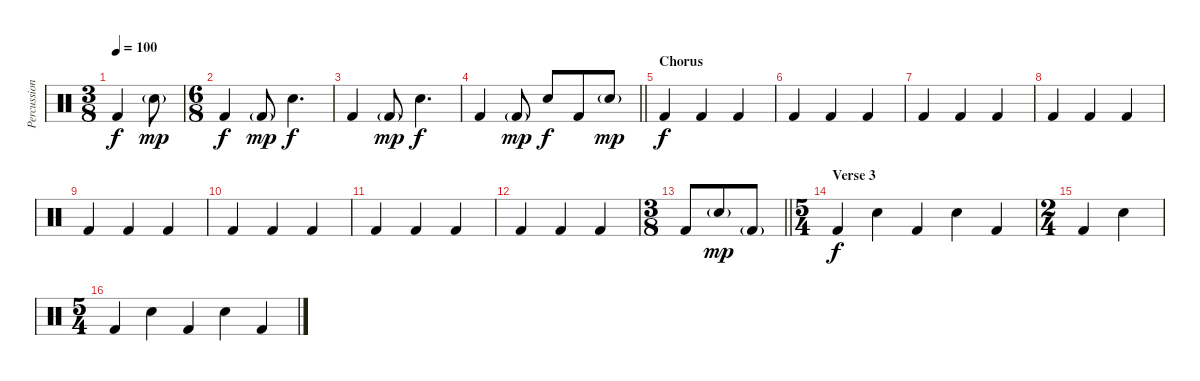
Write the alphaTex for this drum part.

\track ("Percussion" "Percussion") {instrument percussion}
\staff {score}
\articulation defaults
\ts (3 8)
\tempo 100
\clef neutral
\ks c "Kick (hit) 2".4{dy f} "Snare (hit) 2"{g}.8{dy mp}
|
\ts (6 8)
"Kick (hit) 2".4{dy f} "Kick (hit) 2"{g}.8{dy mp} "Snare (hit) 2".4{d dy f} |
"Kick (hit) 2".4 "Kick (hit) 2"{g}.8{dy mp} "Snare (hit) 2".4{d dy f} |
\barLineRight lightlight "Kick (hit) 2".4 "Kick (hit) 2"{g}.8{dy mp} "Snare (hit) 2".8{dy f} "Kick (hit) 2".8 "Snare (hit) 2"{g}.8{dy mp}
|
\section ("" "Chorus")
"Kick (hit) 2".4{dy f} "Kick (hit) 2".4 "Kick (hit) 2".4 |
"Kick (hit) 2".4 "Kick (hit) 2".4 "Kick (hit) 2".4 |
"Kick (hit) 2".4 "Kick (hit) 2".4 "Kick (hit) 2".4 |
"Kick (hit) 2".4 "Kick (hit) 2".4 "Kick (hit) 2".4 |
"Kick (hit) 2".4 "Kick (hit) 2".4 "Kick (hit) 2".4 |
"Kick (hit) 2".4 "Kick (hit) 2".4 "Kick (hit) 2".4 |
"Kick (hit) 2".4 "Kick (hit) 2".4 "Kick (hit) 2".4 |
"Kick (hit) 2".4 "Kick (hit) 2".4 "Kick (hit) 2".4 |
\ts (3 8)
\barLineRight lightlight "Kick (hit) 2".8 "Snare (hit) 2"{g}.8{dy mp} "Kick (hit) 2"{g}.8
|
\ts (5 4)
\section ("" "Verse 3")
"Kick (hit) 2".4{dy f} "Snare (hit) 2".4 "Kick (hit) 2".4 "Snare (hit) 2".4 "Kick (hit) 2".4 |
\ts (2 4)
"Kick (hit) 2".4 "Snare (hit) 2".4 |
\ts (5 4)
"Kick (hit) 2".4 "Snare (hit) 2".4 "Kick (hit) 2".4 "Snare (hit) 2".4 "Kick (hit) 2".4
